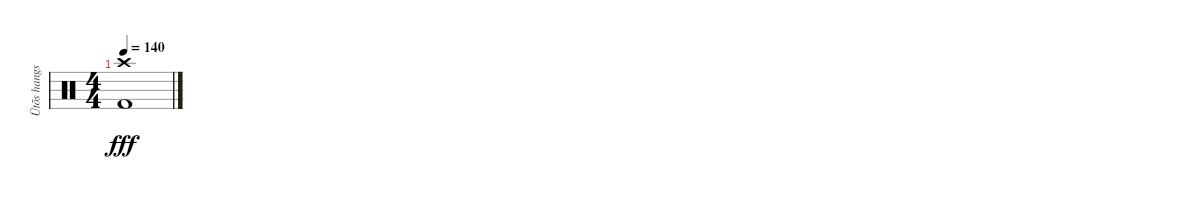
\track ("Ütõs hangszer" "Ütõs hangs") {instrument percussion}
\staff {score}
\articulation defaults
\ts (4 4)
\tempo 140
\clef neutral
\ks c
("Kick (hit) 2" "Crash high (hit)").1{dy fff}
